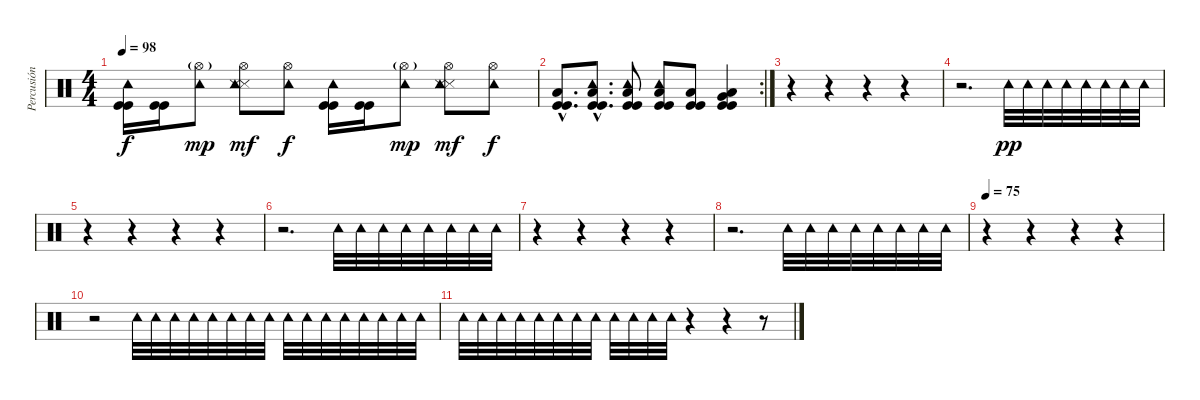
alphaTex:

\track ("Percusión" "Percusión") {instrument percussion}
\staff {score}
\articulation defaults
\ts (4 4)
\tempo 98
\clef neutral
\ks c
("Kick (hit)" "Kick (hit)" "Tambourine (hit)").16{dy f} ("Kick (hit)" "Kick (hit)").16 ("Tambourine (hit)" "Hi-Hat (open)"{g}).8{dy mp} ("Snare (side stick) 3" "Snare (side stick) 3" "Tambourine (hit)" "Hi-Hat (open)").8{dy mf} ("Tambourine (hit)" "Hi-Hat (open)").8{dy f} ("Kick (hit)" "Kick (hit)" "Tambourine (hit)").16 ("Kick (hit)" "Kick (hit)").16 ("Tambourine (hit)" "Hi-Hat (open)"{g}).8{dy mp} ("Snare (side stick) 3" "Snare (side stick) 3" "Tambourine (hit)" "Hi-Hat (open)").8{dy mf} ("Tambourine (hit)" "Hi-Hat (open)").8{dy f} |
\rc 2
("Kick (hit)"{hac} "Kick (hit)"{hac} "Low Floor Tom (hit)"{hac}).8{d} ("Kick (hit)"{hac} "Kick (hit)"{hac} "Low Floor Tom (hit)"{hac} "Tambourine (hit)"{hac}).8{d} ("Kick (hit)" "Kick (hit)" "Low Floor Tom (hit)" "Tambourine (hit)").8 ("Kick (hit)" "Kick (hit)" "Low Floor Tom (hit)" "Tambourine (hit)").8 ("Kick (hit)" "Kick (hit)" "Low Floor Tom (hit)").8 ("Kick (hit)" "Kick (hit)" "Low Floor Tom (hit)" "Very Low Tom (hit)").4 |
r.4 r.4 r.4 r.4 |
r.2{d} "Tambourine (hit)".32{dy pp} "Tambourine (hit)".32 "Tambourine (hit)".32 "Tambourine (hit)".32 "Tambourine (hit)".32 "Tambourine (hit)".32 "Tambourine (hit)".32 "Tambourine (hit)".32 |
r.4 r.4 r.4 r.4 |
r.2{d} "Tambourine (hit)".32 "Tambourine (hit)".32 "Tambourine (hit)".32 "Tambourine (hit)".32 "Tambourine (hit)".32 "Tambourine (hit)".32 "Tambourine (hit)".32 "Tambourine (hit)".32 |
r.4 r.4 r.4 r.4 |
r.2{d} "Tambourine (hit)".32 "Tambourine (hit)".32 "Tambourine (hit)".32 "Tambourine (hit)".32 "Tambourine (hit)".32 "Tambourine (hit)".32 "Tambourine (hit)".32 "Tambourine (hit)".32 |
\tempo 75
r.4 r.4 r.4 r.4 |
r.2 "Tambourine (hit)".32 "Tambourine (hit)".32 "Tambourine (hit)".32 "Tambourine (hit)".32 "Tambourine (hit)".32 "Tambourine (hit)".32 "Tambourine (hit)".32 "Tambourine (hit)".32 "Tambourine (hit)".32 "Tambourine (hit)".32 "Tambourine (hit)".32 "Tambourine (hit)".32 "Tambourine (hit)".32 "Tambourine (hit)".32 "Tambourine (hit)".32 "Tambourine (hit)".32 |
"Tambourine (hit)".32 "Tambourine (hit)".32 "Tambourine (hit)".32 "Tambourine (hit)".32 "Tambourine (hit)".32 "Tambourine (hit)".32 "Tambourine (hit)".32 "Tambourine (hit)".32 "Tambourine (hit)".32 "Tambourine (hit)".32 "Tambourine (hit)".32 "Tambourine (hit)".32 r.4 r.4 r.8
